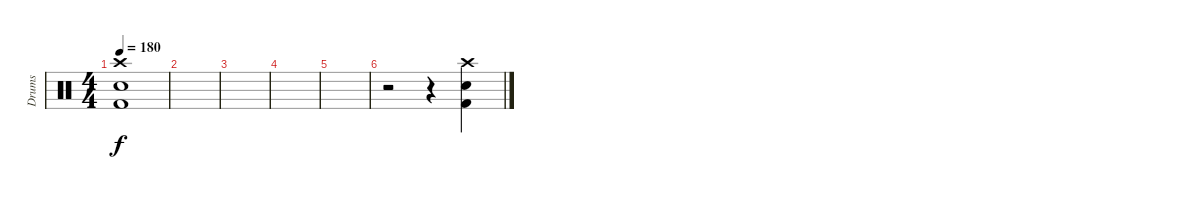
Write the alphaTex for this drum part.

\track ("Drums" "Drums") {instrument percussion}
\staff {score}
\articulation defaults
\ts (4 4)
\tempo 180
\clef neutral
\ks c
("Crash high (hit)" "Electric Snare (hit)" "Kick (hit) 2").1{dy f} |
|
|
|
|
r.2 r.4 ("Crash high (hit)" "Electric Snare (hit)" "Kick (hit) 2").4
